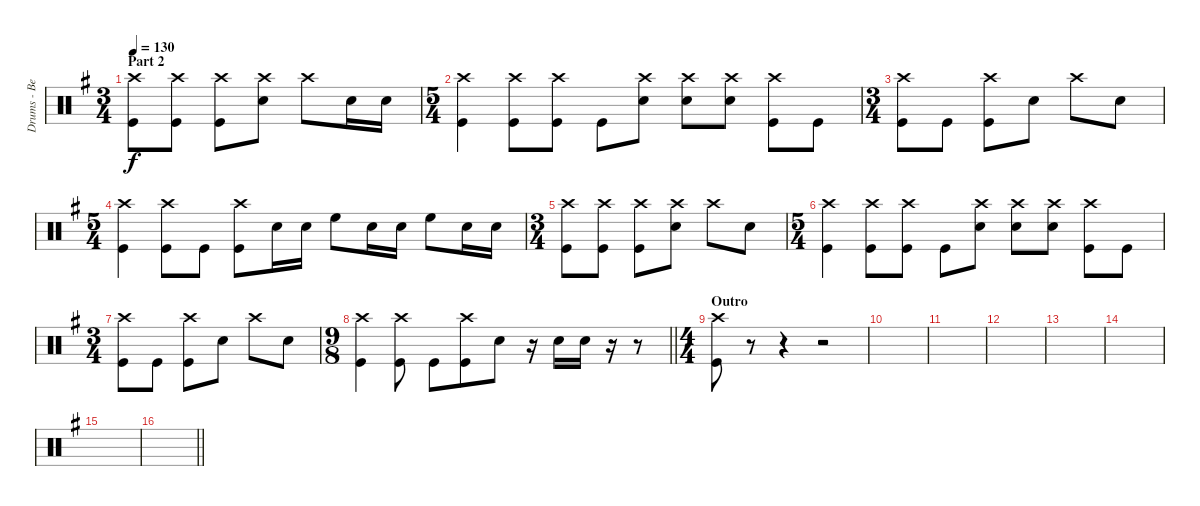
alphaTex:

\track ("Drums - Ben Johnston" "Drums - Be") {instrument percussion}
\staff {score}
\articulation defaults
\ts (3 4)
\section ("" "Part 2")
\tempo 130
\clef neutral
\ks eminor
("Crash high (hit)" "Kick (hit)").8{dy f} ("Crash high (hit)" "Kick (hit)").8 ("Crash high (hit)" "Kick (hit)").8 ("Crash high (hit)" "Snare (hit) 2").8 "Crash high (hit)".8 "Snare (hit) 2".16 "Snare (hit) 2".16 |
\ts (5 4)
("Crash high (hit)" "Kick (hit)").4 ("Crash high (hit)" "Kick (hit)").8 ("Crash high (hit)" "Kick (hit)").8 "Kick (hit)".8 ("Crash high (hit)" "Snare (hit) 2").8 ("Crash high (hit)" "Snare (hit) 2").8 ("Crash high (hit)" "Snare (hit) 2").8 ("Crash high (hit)" "Kick (hit)").8 "Kick (hit)".8 |
\ts (3 4)
("Crash high (hit)" "Kick (hit)").8 "Kick (hit)".8 ("Crash high (hit)" "Kick (hit)").8 "Snare (hit) 2".8 "Crash high (hit)".8 "Snare (hit) 2".8 |
\ts (5 4)
("Crash high (hit)" "Kick (hit)").4 ("Crash high (hit)" "Kick (hit)").8 "Kick (hit)".8 ("Crash high (hit)" "Kick (hit)").8 "Snare (hit) 2".16 "Snare (hit) 2".16 "High Floor Tom (hit)".8 "Snare (hit) 2".16 "Snare (hit) 2".16 "High Floor Tom (hit)".8 "Snare (hit) 2".16 "Snare (hit) 2".16 |
\ts (3 4)
("Crash high (hit)" "Kick (hit)").8 ("Crash high (hit)" "Kick (hit)").8 ("Crash high (hit)" "Kick (hit)").8 ("Crash high (hit)" "Snare (hit) 2").8 "Crash high (hit)".8 "Snare (hit) 2".8 |
\ts (5 4)
("Crash high (hit)" "Kick (hit)").4 ("Crash high (hit)" "Kick (hit)").8 ("Crash high (hit)" "Kick (hit)").8 "Kick (hit)".8 ("Crash high (hit)" "Snare (hit) 2").8 ("Crash high (hit)" "Snare (hit) 2").8 ("Crash high (hit)" "Snare (hit) 2").8 ("Crash high (hit)" "Kick (hit)").8 "Kick (hit)".8 |
\ts (3 4)
("Crash high (hit)" "Kick (hit)").8 "Kick (hit)".8 ("Crash high (hit)" "Kick (hit)").8 "Snare (hit) 2".8 "Crash high (hit)".8 "Snare (hit) 2".8 |
\ts (9 8)
\barLineRight lightlight
("Crash high (hit)" "Kick (hit)").4 ("Crash high (hit)" "Kick (hit)").8 "Kick (hit)".8 ("Crash high (hit)" "Kick (hit)").8 "Snare (hit) 2".8 r.16 "Snare (hit) 2".16 "Snare (hit) 2".16 r.16 r.8 |
\ts (4 4)
\section ("" "Outro")
("Crash high (hit)" "Kick (hit)").8 r.8 r.4 r.2 |
|
|
|
|
|
|
\barLineRight lightlight
